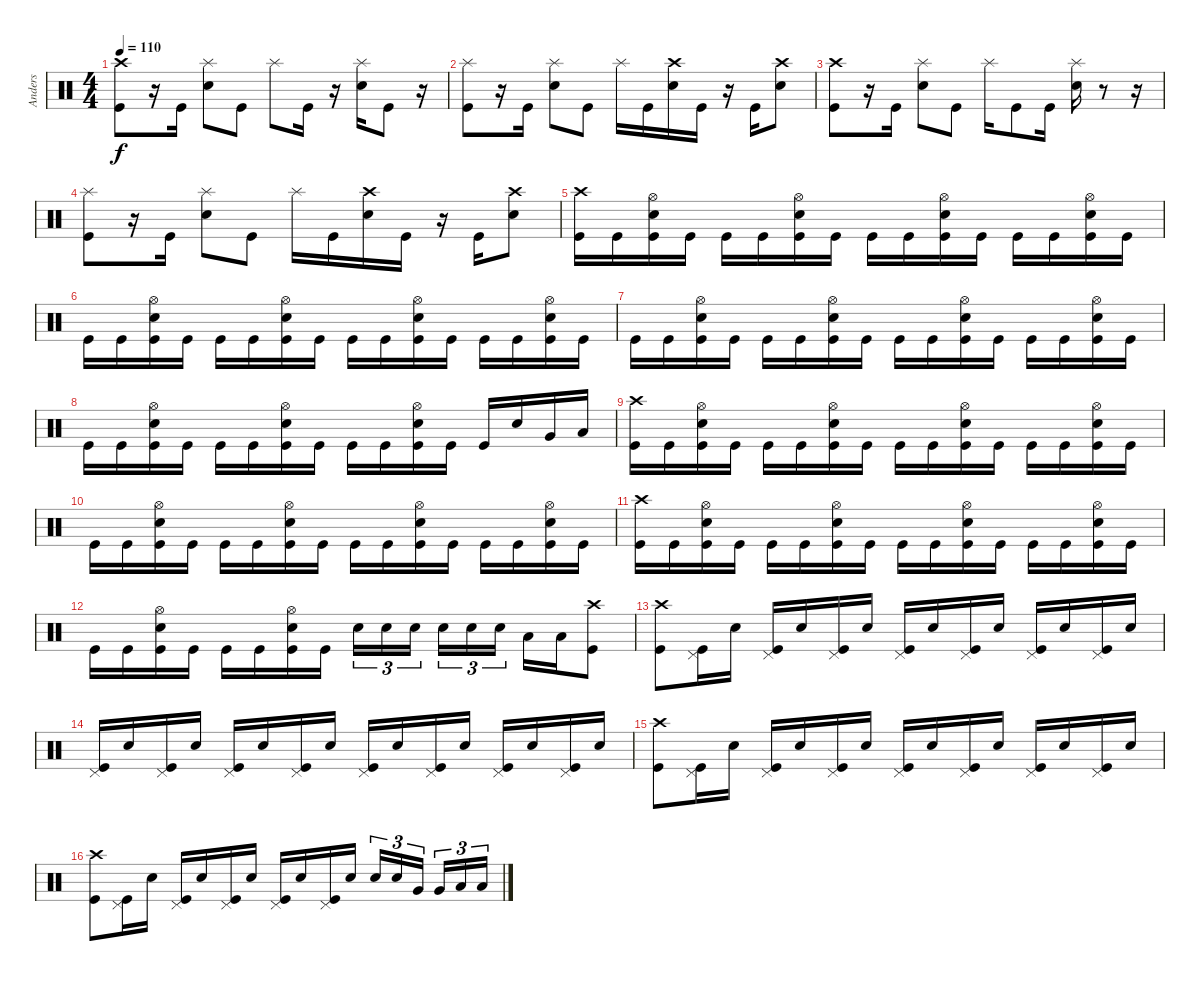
\track ("Anders" "Anders") {instrument percussion}
\staff {score}
\articulation defaults
\ts (4 4)
\tempo 110
\clef neutral
\ks c
("Crash high (hit)" "Kick (hit)").8{dy f} r.16 "Kick (hit)".16 ("Splash (hit)" "Snare (hit) 2").8 "Kick (hit)".8 "Splash (hit)".8 "Kick (hit)".16 r.16 ("Splash (hit)" "Snare (hit) 2").16 "Kick (hit)".8 r.16 |
("Splash (hit)" "Kick (hit)").8 r.16 "Kick (hit)".16 ("Splash (hit)" "Snare (hit) 2").8 "Kick (hit)".8 "Splash (hit)".16 "Kick (hit)".16 ("Crash high (hit)" "Snare (hit) 2").16 "Kick (hit)".16 r.16 "Kick (hit)".16 ("Crash high (hit)" "Snare (hit) 2").8 |
("Crash high (hit)" "Kick (hit)").8 r.16 "Kick (hit)".16 ("Splash (hit)" "Snare (hit) 2").8 "Kick (hit)".8 "Splash (hit)".16 "Kick (hit)".8 "Kick (hit)".16 ("Splash (hit)" "Snare (hit) 2").16 r.8 r.16 |
("Splash (hit)" "Kick (hit)").8 r.16 "Kick (hit)".16 ("Splash (hit)" "Snare (hit) 2").8 "Kick (hit)".8 "Splash (hit)".16 "Kick (hit)".16 ("Crash high (hit)" "Snare (hit) 2").16 "Kick (hit)".16 r.16 "Kick (hit)".16 ("Crash high (hit)" "Snare (hit) 2").8 |
("Crash high (hit)" "Kick (hit)").16 "Kick (hit)".16 ("Hi-Hat (open)" "Snare (hit) 2" "Kick (hit)").16 "Kick (hit)".16 "Kick (hit)".16 "Kick (hit)".16 ("Hi-Hat (open)" "Snare (hit) 2" "Kick (hit)").16 "Kick (hit)".16 "Kick (hit)".16 "Kick (hit)".16 ("Hi-Hat (open)" "Snare (hit) 2" "Kick (hit)").16 "Kick (hit)".16 "Kick (hit)".16 "Kick (hit)".16 ("Hi-Hat (open)" "Snare (hit) 2" "Kick (hit)").16 "Kick (hit)".16 |
"Kick (hit)".16 "Kick (hit)".16 ("Hi-Hat (open)" "Snare (hit) 2" "Kick (hit)").16 "Kick (hit)".16 "Kick (hit)".16 "Kick (hit)".16 ("Hi-Hat (open)" "Snare (hit) 2" "Kick (hit)").16 "Kick (hit)".16 "Kick (hit)".16 "Kick (hit)".16 ("Hi-Hat (open)" "Snare (hit) 2" "Kick (hit)").16 "Kick (hit)".16 "Kick (hit)".16 "Kick (hit)".16 ("Hi-Hat (open)" "Snare (hit) 2" "Kick (hit)").16 "Kick (hit)".16 |
"Kick (hit)".16 "Kick (hit)".16 ("Hi-Hat (open)" "Snare (hit) 2" "Kick (hit)").16 "Kick (hit)".16 "Kick (hit)".16 "Kick (hit)".16 ("Hi-Hat (open)" "Snare (hit) 2" "Kick (hit)").16 "Kick (hit)".16 "Kick (hit)".16 "Kick (hit)".16 ("Hi-Hat (open)" "Snare (hit) 2" "Kick (hit)").16 "Kick (hit)".16 "Kick (hit)".16 "Kick (hit)".16 ("Hi-Hat (open)" "Snare (hit) 2" "Kick (hit)").16 "Kick (hit)".16 |
"Kick (hit)".16 "Kick (hit)".16 ("Hi-Hat (open)" "Snare (hit) 2" "Kick (hit)").16 "Kick (hit)".16 "Kick (hit)".16 "Kick (hit)".16 ("Hi-Hat (open)" "Snare (hit) 2" "Kick (hit)").16 "Kick (hit)".16 "Kick (hit)".16 "Kick (hit)".16 ("Hi-Hat (open)" "Snare (hit) 2" "Kick (hit)").16 "Kick (hit)".16 "Kick (hit)".16 "Snare (hit) 2".16 "Very Low Tom (hit)".16 "Low Floor Tom (hit)".16 |
("Crash high (hit)" "Kick (hit)").16 "Kick (hit)".16 ("Hi-Hat (open)" "Snare (hit) 2" "Kick (hit)").16 "Kick (hit)".16 "Kick (hit)".16 "Kick (hit)".16 ("Hi-Hat (open)" "Snare (hit) 2" "Kick (hit)").16 "Kick (hit)".16 "Kick (hit)".16 "Kick (hit)".16 ("Hi-Hat (open)" "Snare (hit) 2" "Kick (hit)").16 "Kick (hit)".16 "Kick (hit)".16 "Kick (hit)".16 ("Hi-Hat (open)" "Snare (hit) 2" "Kick (hit)").16 "Kick (hit)".16 |
"Kick (hit)".16 "Kick (hit)".16 ("Hi-Hat (open)" "Snare (hit) 2" "Kick (hit)").16 "Kick (hit)".16 "Kick (hit)".16 "Kick (hit)".16 ("Hi-Hat (open)" "Snare (hit) 2" "Kick (hit)").16 "Kick (hit)".16 "Kick (hit)".16 "Kick (hit)".16 ("Hi-Hat (open)" "Snare (hit) 2" "Kick (hit)").16 "Kick (hit)".16 "Kick (hit)".16 "Kick (hit)".16 ("Hi-Hat (open)" "Snare (hit) 2" "Kick (hit)").16 "Kick (hit)".16 |
("Crash high (hit)" "Kick (hit)").16 "Kick (hit)".16 ("Hi-Hat (open)" "Snare (hit) 2" "Kick (hit)").16 "Kick (hit)".16 "Kick (hit)".16 "Kick (hit)".16 ("Hi-Hat (open)" "Snare (hit) 2" "Kick (hit)").16 "Kick (hit)".16 "Kick (hit)".16 "Kick (hit)".16 ("Hi-Hat (open)" "Snare (hit) 2" "Kick (hit)").16 "Kick (hit)".16 "Kick (hit)".16 "Kick (hit)".16 ("Hi-Hat (open)" "Snare (hit) 2" "Kick (hit)").16 "Kick (hit)".16 |
"Kick (hit)".16 "Kick (hit)".16 ("Hi-Hat (open)" "Snare (hit) 2" "Kick (hit)").16 "Kick (hit)".16 "Kick (hit)".16 "Kick (hit)".16 ("Hi-Hat (open)" "Snare (hit) 2" "Kick (hit)").16 "Kick (hit)".16 "Snare (hit) 2".16{tu (3 2)} "Snare (hit) 2".16{tu (3 2)} "Snare (hit) 2".16{tu (3 2)} "Snare (hit) 2".16{tu (3 2)} "Snare (hit) 2".16{tu (3 2)} "Snare (hit) 2".16{tu (3 2)} "Low Floor Tom (hit)".16 "Low Floor Tom (hit)".16 ("Crash high (hit)" "Kick (hit)").8 |
("Crash high (hit)" "Kick (hit)").8 ("Pedal Hi-Hat (hit)" "Kick (hit)").16 "Snare (hit) 2".16 ("Pedal Hi-Hat (hit)" "Kick (hit)").16 "Snare (hit) 2".16 ("Pedal Hi-Hat (hit)" "Kick (hit)").16 "Snare (hit) 2".16 ("Pedal Hi-Hat (hit)" "Kick (hit)").16 "Snare (hit) 2".16 ("Pedal Hi-Hat (hit)" "Kick (hit)").16 "Snare (hit) 2".16 ("Pedal Hi-Hat (hit)" "Kick (hit)").16 "Snare (hit) 2".16 ("Pedal Hi-Hat (hit)" "Kick (hit)").16 "Snare (hit) 2".16 |
("Pedal Hi-Hat (hit)" "Kick (hit)").16 "Snare (hit) 2".16 ("Pedal Hi-Hat (hit)" "Kick (hit)").16 "Snare (hit) 2".16 ("Pedal Hi-Hat (hit)" "Kick (hit)").16 "Snare (hit) 2".16 ("Pedal Hi-Hat (hit)" "Kick (hit)").16 "Snare (hit) 2".16 ("Pedal Hi-Hat (hit)" "Kick (hit)").16 "Snare (hit) 2".16 ("Pedal Hi-Hat (hit)" "Kick (hit)").16 "Snare (hit) 2".16 ("Pedal Hi-Hat (hit)" "Kick (hit)").16 "Snare (hit) 2".16 ("Pedal Hi-Hat (hit)" "Kick (hit)").16 "Snare (hit) 2".16 |
("Crash high (hit)" "Kick (hit)").8 ("Pedal Hi-Hat (hit)" "Kick (hit)").16 "Snare (hit) 2".16 ("Pedal Hi-Hat (hit)" "Kick (hit)").16 "Snare (hit) 2".16 ("Pedal Hi-Hat (hit)" "Kick (hit)").16 "Snare (hit) 2".16 ("Pedal Hi-Hat (hit)" "Kick (hit)").16 "Snare (hit) 2".16 ("Pedal Hi-Hat (hit)" "Kick (hit)").16 "Snare (hit) 2".16 ("Pedal Hi-Hat (hit)" "Kick (hit)").16 "Snare (hit) 2".16 ("Pedal Hi-Hat (hit)" "Kick (hit)").16 "Snare (hit) 2".16 |
("Crash high (hit)" "Kick (hit)").8 ("Pedal Hi-Hat (hit)" "Kick (hit)").16 "Snare (hit) 2".16 ("Pedal Hi-Hat (hit)" "Kick (hit)").16 "Snare (hit) 2".16 ("Pedal Hi-Hat (hit)" "Kick (hit)").16 "Snare (hit) 2".16 ("Pedal Hi-Hat (hit)" "Kick (hit)").16 "Snare (hit) 2".16 ("Pedal Hi-Hat (hit)" "Kick (hit)").16 "Snare (hit) 2".16 "Snare (hit) 2".16{tu (3 2)} "Snare (hit) 2".16{tu (3 2)} "Very Low Tom (hit)".16{tu (3 2)} "Very Low Tom (hit)".16{tu (3 2)} "Low Floor Tom (hit)".16{tu (3 2)} "Low Floor Tom (hit)".16{tu (3 2)}
